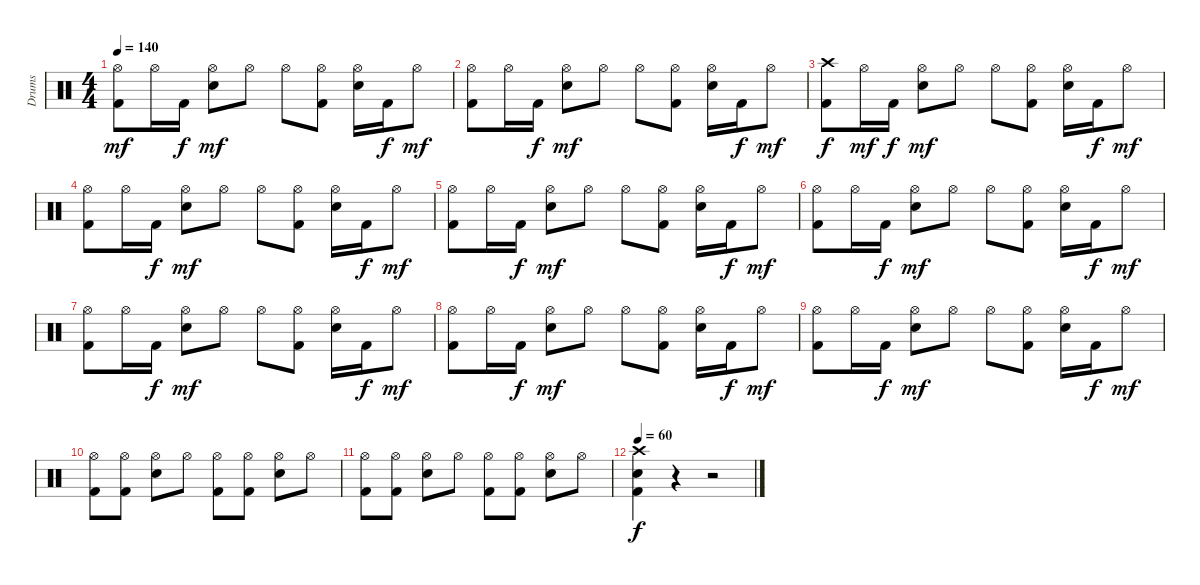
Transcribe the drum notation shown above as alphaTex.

\track ("Drums" "Drums") {instrument percussion}
\staff {score}
\articulation defaults
\ts (4 4)
\tempo 140
\clef neutral
\ks c
("Hi-Hat (open)" "Kick (hit) 2").8{dy mf} "Hi-Hat (open)".16 "Kick (hit) 2".16{dy f} ("Hi-Hat (open)" "Electric Snare (hit)").8{dy mf} "Hi-Hat (open)".8 "Hi-Hat (open)".8 ("Hi-Hat (open)" "Kick (hit) 2").8 ("Hi-Hat (open)" "Electric Snare (hit)").16 "Kick (hit) 2".16{dy f} "Hi-Hat (open)".8{dy mf} |
("Hi-Hat (open)" "Kick (hit) 2").8 "Hi-Hat (open)".16 "Kick (hit) 2".16{dy f} ("Hi-Hat (open)" "Electric Snare (hit)").8{dy mf} "Hi-Hat (open)".8 "Hi-Hat (open)".8 ("Hi-Hat (open)" "Kick (hit) 2").8 ("Hi-Hat (open)" "Electric Snare (hit)").16 "Kick (hit) 2".16{dy f} "Hi-Hat (open)".8{dy mf} |
("Crash high (hit)" "Kick (hit) 2").8{dy f} "Hi-Hat (open)".16{dy mf} "Kick (hit) 2".16{dy f} ("Hi-Hat (open)" "Electric Snare (hit)").8{dy mf} "Hi-Hat (open)".8 "Hi-Hat (open)".8 ("Hi-Hat (open)" "Kick (hit) 2").8 ("Hi-Hat (open)" "Electric Snare (hit)").16 "Kick (hit) 2".16{dy f} "Hi-Hat (open)".8{dy mf} |
("Hi-Hat (open)" "Kick (hit) 2").8 "Hi-Hat (open)".16 "Kick (hit) 2".16{dy f} ("Hi-Hat (open)" "Electric Snare (hit)").8{dy mf} "Hi-Hat (open)".8 "Hi-Hat (open)".8 ("Hi-Hat (open)" "Kick (hit) 2").8 ("Hi-Hat (open)" "Electric Snare (hit)").16 "Kick (hit) 2".16{dy f} "Hi-Hat (open)".8{dy mf} |
("Hi-Hat (open)" "Kick (hit) 2").8 "Hi-Hat (open)".16 "Kick (hit) 2".16{dy f} ("Hi-Hat (open)" "Electric Snare (hit)").8{dy mf} "Hi-Hat (open)".8 "Hi-Hat (open)".8 ("Hi-Hat (open)" "Kick (hit) 2").8 ("Hi-Hat (open)" "Electric Snare (hit)").16 "Kick (hit) 2".16{dy f} "Hi-Hat (open)".8{dy mf} |
("Hi-Hat (open)" "Kick (hit) 2").8 "Hi-Hat (open)".16 "Kick (hit) 2".16{dy f} ("Hi-Hat (open)" "Electric Snare (hit)").8{dy mf} "Hi-Hat (open)".8 "Hi-Hat (open)".8 ("Hi-Hat (open)" "Kick (hit) 2").8 ("Hi-Hat (open)" "Electric Snare (hit)").16 "Kick (hit) 2".16{dy f} "Hi-Hat (open)".8{dy mf} |
("Hi-Hat (open)" "Kick (hit) 2").8 "Hi-Hat (open)".16 "Kick (hit) 2".16{dy f} ("Hi-Hat (open)" "Electric Snare (hit)").8{dy mf} "Hi-Hat (open)".8 "Hi-Hat (open)".8 ("Hi-Hat (open)" "Kick (hit) 2").8 ("Hi-Hat (open)" "Electric Snare (hit)").16 "Kick (hit) 2".16{dy f} "Hi-Hat (open)".8{dy mf} |
("Hi-Hat (open)" "Kick (hit) 2").8 "Hi-Hat (open)".16 "Kick (hit) 2".16{dy f} ("Hi-Hat (open)" "Electric Snare (hit)").8{dy mf} "Hi-Hat (open)".8 "Hi-Hat (open)".8 ("Hi-Hat (open)" "Kick (hit) 2").8 ("Hi-Hat (open)" "Electric Snare (hit)").16 "Kick (hit) 2".16{dy f} "Hi-Hat (open)".8{dy mf} |
("Hi-Hat (open)" "Kick (hit) 2").8 "Hi-Hat (open)".16 "Kick (hit) 2".16{dy f} ("Hi-Hat (open)" "Electric Snare (hit)").8{dy mf} "Hi-Hat (open)".8 "Hi-Hat (open)".8 ("Hi-Hat (open)" "Kick (hit) 2").8 ("Hi-Hat (open)" "Electric Snare (hit)").16 "Kick (hit) 2".16{dy f} "Hi-Hat (open)".8{dy mf} |
("Hi-Hat (open)" "Kick (hit) 2").8 ("Hi-Hat (open)" "Kick (hit) 2").8 ("Hi-Hat (open)" "Electric Snare (hit)").8 "Hi-Hat (open)".8 ("Hi-Hat (open)" "Kick (hit) 2").8 ("Hi-Hat (open)" "Kick (hit) 2").8 ("Hi-Hat (open)" "Electric Snare (hit)").8 "Hi-Hat (open)".8 |
("Hi-Hat (open)" "Kick (hit) 2").8 ("Hi-Hat (open)" "Kick (hit) 2").8 ("Hi-Hat (open)" "Electric Snare (hit)").8 "Hi-Hat (open)".8 ("Hi-Hat (open)" "Kick (hit) 2").8 ("Hi-Hat (open)" "Kick (hit) 2").8 ("Hi-Hat (open)" "Electric Snare (hit)").8 "Hi-Hat (open)".8 |
\tempo 60
("Crash high (hit)" "Electric Snare (hit)" "Kick (hit) 2").4{dy f} r.4 r.2
